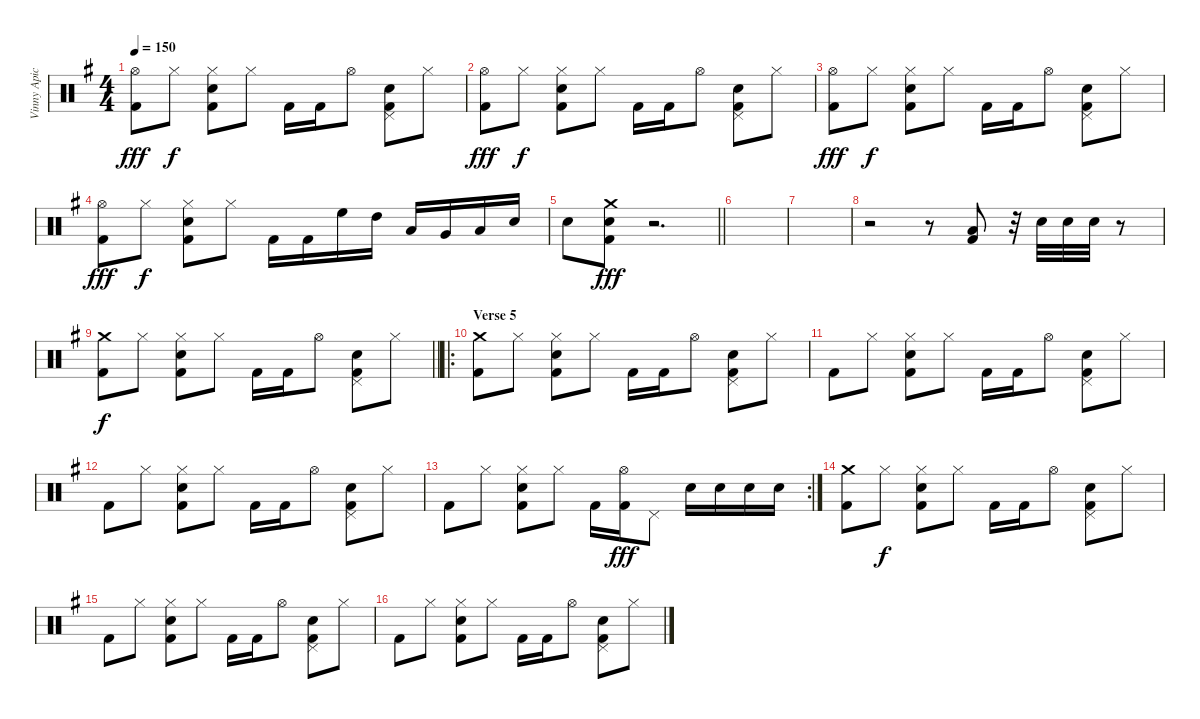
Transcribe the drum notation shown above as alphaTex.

\track ("Vinny Apice" "Vinny Apic") {instrument percussion}
\staff {score}
\articulation defaults
\ts (4 4)
\tempo 150
\clef neutral
\ks g
("Hi-Hat (open)" "Kick (hit) 2").8{dy fff} "Hi-Hat (closed)".8{dy f} ("Hi-Hat (closed)" "Snare (hit) 2" "Kick (hit) 2").8 "Hi-Hat (closed)".8 "Kick (hit) 2".16 "Kick (hit) 2".16 "Hi-Hat (open)".8 ("Pedal Hi-Hat (hit)" "Snare (hit) 2" "Kick (hit) 2").8 "Hi-Hat (closed)".8 |
("Hi-Hat (open)" "Kick (hit) 2").8{dy fff} "Hi-Hat (closed)".8{dy f} ("Hi-Hat (closed)" "Snare (hit) 2" "Kick (hit) 2").8 "Hi-Hat (closed)".8 "Kick (hit) 2".16 "Kick (hit) 2".16 "Hi-Hat (open)".8 ("Pedal Hi-Hat (hit)" "Snare (hit) 2" "Kick (hit) 2").8 "Hi-Hat (closed)".8 |
("Hi-Hat (open)" "Kick (hit) 2").8{dy fff} "Hi-Hat (closed)".8{dy f} ("Hi-Hat (closed)" "Snare (hit) 2" "Kick (hit) 2").8 "Hi-Hat (closed)".8 "Kick (hit) 2".16 "Kick (hit) 2".16 "Hi-Hat (open)".8 ("Pedal Hi-Hat (hit)" "Snare (hit) 2" "Kick (hit) 2").8 "Hi-Hat (closed)".8 |
("Hi-Hat (open)" "Kick (hit) 2").8{dy fff} "Hi-Hat (closed)".8{dy f} ("Hi-Hat (closed)" "Snare (hit) 2" "Kick (hit) 2").8 "Hi-Hat (closed)".8 "Kick (hit) 2".16 "Kick (hit) 2".16 "High Floor Tom (hit)".16 "High Tom (hit)".16 "Low Tom (hit)".16 "Very Low Tom (hit)".16 "Low Floor Tom (hit)".16 "Electric Snare (hit)".16 |
\barLineRight lightlight "Snare (hit) 2".8
("Crash medium (hit)" "Snare (hit) 2" "Kick (hit) 2").8{dy fff} r.2{d} |
|
|
r.2 r.8 ("Low Floor Tom (hit)" "Kick (hit) 2").8 r.32 "Snare (hit) 2".32 "Snare (hit) 2".32 "Snare (hit) 2".32 r.8 |
\barLineRight lightlight
("Crash medium (hit)" "Kick (hit) 2").8{dy f} "Hi-Hat (closed)".8 ("Hi-Hat (closed)" "Snare (hit) 2" "Kick (hit) 2").8 "Hi-Hat (closed)".8 "Kick (hit) 2".16 "Kick (hit) 2".16 "Hi-Hat (open)".8 ("Pedal Hi-Hat (hit)" "Snare (hit) 2" "Kick (hit) 2").8 "Hi-Hat (closed)".8 |
\ro
\section ("" "Verse 5")
("Crash medium (hit)" "Kick (hit) 2").8 "Hi-Hat (closed)".8 ("Hi-Hat (closed)" "Snare (hit) 2" "Kick (hit) 2").8 "Hi-Hat (closed)".8 "Kick (hit) 2".16 "Kick (hit) 2".16 "Hi-Hat (open)".8 ("Pedal Hi-Hat (hit)" "Snare (hit) 2" "Kick (hit) 2").8 "Hi-Hat (closed)".8 |
"Kick (hit) 2".8 "Hi-Hat (closed)".8 ("Hi-Hat (closed)" "Snare (hit) 2" "Kick (hit) 2").8 "Hi-Hat (closed)".8 "Kick (hit) 2".16 "Kick (hit) 2".16 "Hi-Hat (open)".8 ("Pedal Hi-Hat (hit)" "Snare (hit) 2" "Kick (hit) 2").8 "Hi-Hat (closed)".8 |
"Kick (hit) 2".8 "Hi-Hat (closed)".8 ("Hi-Hat (closed)" "Snare (hit) 2" "Kick (hit) 2").8 "Hi-Hat (closed)".8 "Kick (hit) 2".16 "Kick (hit) 2".16 "Hi-Hat (open)".8 ("Pedal Hi-Hat (hit)" "Snare (hit) 2" "Kick (hit) 2").8 "Hi-Hat (closed)".8 |
\rc 2 "Kick (hit) 2".8 "Hi-Hat (closed)".8
("Hi-Hat (closed)" "Snare (hit) 2" "Kick (hit) 2").8 "Hi-Hat (closed)".8 "Kick (hit) 2".16 ("Hi-Hat (open)" "Kick (hit) 2").16{dy fff} "Pedal Hi-Hat (hit)".8 "Snare (hit) 2".16 "Snare (hit) 2".16 "Snare (hit) 2".16 "Snare (hit) 2".16 |
("Crash medium (hit)" "Kick (hit) 2").8 "Hi-Hat (closed)".8{dy f} ("Hi-Hat (closed)" "Snare (hit) 2" "Kick (hit) 2").8 "Hi-Hat (closed)".8 "Kick (hit) 2".16 "Kick (hit) 2".16 "Hi-Hat (open)".8 ("Pedal Hi-Hat (hit)" "Snare (hit) 2" "Kick (hit) 2").8 "Hi-Hat (closed)".8 |
"Kick (hit) 2".8 "Hi-Hat (closed)".8 ("Hi-Hat (closed)" "Snare (hit) 2" "Kick (hit) 2").8 "Hi-Hat (closed)".8 "Kick (hit) 2".16 "Kick (hit) 2".16 "Hi-Hat (open)".8 ("Pedal Hi-Hat (hit)" "Snare (hit) 2" "Kick (hit) 2").8 "Hi-Hat (closed)".8 |
"Kick (hit) 2".8 "Hi-Hat (closed)".8 ("Hi-Hat (closed)" "Snare (hit) 2" "Kick (hit) 2").8 "Hi-Hat (closed)".8 "Kick (hit) 2".16 "Kick (hit) 2".16 "Hi-Hat (open)".8 ("Pedal Hi-Hat (hit)" "Snare (hit) 2" "Kick (hit) 2").8 "Hi-Hat (closed)".8
